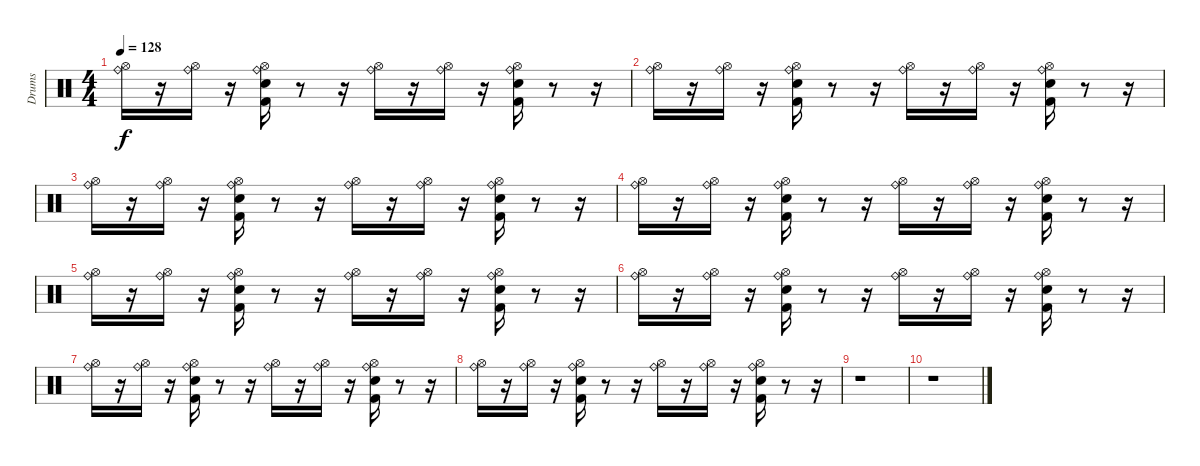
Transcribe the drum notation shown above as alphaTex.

\track ("Drums" "Drums") {instrument percussion}
\staff {score}
\articulation defaults
\ts (4 4)
\tempo 128
\clef neutral
\ks c
("Ride (bell)" "Hi-Hat (open)").16{dy f} r.16 ("Hi-Hat (open)" "Ride (bell)").16 r.16 ("Kick (hit) 2" "Snare (hit) 2" "Ride (bell)" "Hi-Hat (open)").16 r.8 r.16 ("Hi-Hat (open)" "Ride (bell)").16 r.16 ("Hi-Hat (open)" "Ride (bell)").16 r.16 ("Kick (hit) 2" "Snare (hit) 2" "Hi-Hat (open)" "Ride (bell)").16 r.8 r.16 |
("Ride (bell)" "Hi-Hat (open)").16 r.16 ("Hi-Hat (open)" "Ride (bell)").16 r.16 ("Kick (hit) 2" "Snare (hit) 2" "Ride (bell)" "Hi-Hat (open)").16 r.8 r.16 ("Hi-Hat (open)" "Ride (bell)").16 r.16 ("Hi-Hat (open)" "Ride (bell)").16 r.16 ("Kick (hit) 2" "Snare (hit) 2" "Hi-Hat (open)" "Ride (bell)").16 r.8 r.16 |
("Ride (bell)" "Hi-Hat (open)").16 r.16 ("Hi-Hat (open)" "Ride (bell)").16 r.16 ("Kick (hit) 2" "Snare (hit) 2" "Ride (bell)" "Hi-Hat (open)").16 r.8 r.16 ("Hi-Hat (open)" "Ride (bell)").16 r.16 ("Hi-Hat (open)" "Ride (bell)").16 r.16 ("Kick (hit) 2" "Snare (hit) 2" "Hi-Hat (open)" "Ride (bell)").16 r.8 r.16 |
("Ride (bell)" "Hi-Hat (open)").16 r.16 ("Hi-Hat (open)" "Ride (bell)").16 r.16 ("Kick (hit) 2" "Snare (hit) 2" "Ride (bell)" "Hi-Hat (open)").16 r.8 r.16 ("Hi-Hat (open)" "Ride (bell)").16 r.16 ("Hi-Hat (open)" "Ride (bell)").16 r.16 ("Kick (hit) 2" "Snare (hit) 2" "Hi-Hat (open)" "Ride (bell)").16 r.8 r.16 |
("Ride (bell)" "Hi-Hat (open)").16 r.16 ("Hi-Hat (open)" "Ride (bell)").16 r.16 ("Kick (hit) 2" "Snare (hit) 2" "Ride (bell)" "Hi-Hat (open)").16 r.8 r.16 ("Hi-Hat (open)" "Ride (bell)").16 r.16 ("Hi-Hat (open)" "Ride (bell)").16 r.16 ("Kick (hit) 2" "Snare (hit) 2" "Hi-Hat (open)" "Ride (bell)").16 r.8 r.16 |
("Ride (bell)" "Hi-Hat (open)").16 r.16 ("Hi-Hat (open)" "Ride (bell)").16 r.16 ("Kick (hit) 2" "Snare (hit) 2" "Ride (bell)" "Hi-Hat (open)").16 r.8 r.16 ("Hi-Hat (open)" "Ride (bell)").16 r.16 ("Hi-Hat (open)" "Ride (bell)").16 r.16 ("Kick (hit) 2" "Snare (hit) 2" "Hi-Hat (open)" "Ride (bell)").16 r.8 r.16 |
("Ride (bell)" "Hi-Hat (open)").16 r.16 ("Hi-Hat (open)" "Ride (bell)").16 r.16 ("Kick (hit) 2" "Snare (hit) 2" "Ride (bell)" "Hi-Hat (open)").16 r.8 r.16 ("Hi-Hat (open)" "Ride (bell)").16 r.16 ("Hi-Hat (open)" "Ride (bell)").16 r.16 ("Kick (hit) 2" "Snare (hit) 2" "Hi-Hat (open)" "Ride (bell)").16 r.8 r.16 |
("Ride (bell)" "Hi-Hat (open)").16 r.16 ("Hi-Hat (open)" "Ride (bell)").16 r.16 ("Kick (hit) 2" "Snare (hit) 2" "Ride (bell)" "Hi-Hat (open)").16 r.8 r.16 ("Hi-Hat (open)" "Ride (bell)").16 r.16 ("Hi-Hat (open)" "Ride (bell)").16 r.16 ("Kick (hit) 2" "Snare (hit) 2" "Hi-Hat (open)" "Ride (bell)").16 r.8 r.16 |
r.1 |
r.1
